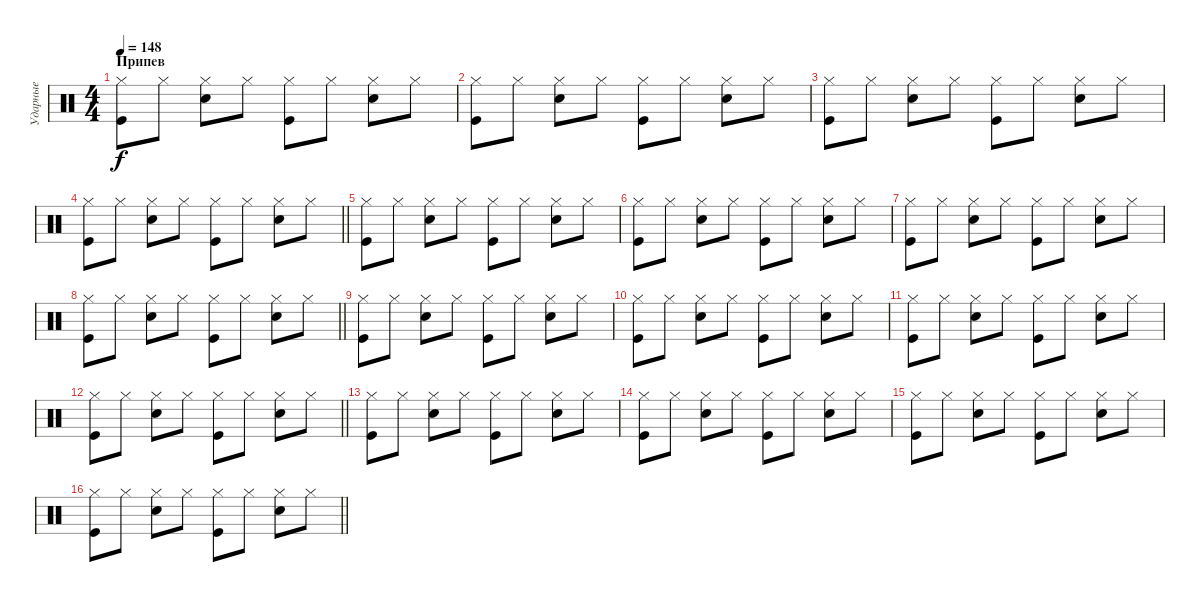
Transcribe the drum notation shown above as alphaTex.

\track ("Ударные" "Ударные") {instrument percussion}
\staff {score}
\articulation defaults
\ts (4 4)
\section ("" "Припев")
\tempo 148
\clef neutral
\ks c
("Hi-Hat (closed)" "Kick (hit)").8{dy f} "Hi-Hat (closed)".8 ("Hi-Hat (closed)" "Snare (hit) 2").8 "Hi-Hat (closed)".8 ("Hi-Hat (closed)" "Kick (hit)").8 "Hi-Hat (closed)".8 ("Hi-Hat (closed)" "Snare (hit) 2").8 "Hi-Hat (closed)".8 |
("Hi-Hat (closed)" "Kick (hit)").8 "Hi-Hat (closed)".8 ("Hi-Hat (closed)" "Snare (hit) 2").8 "Hi-Hat (closed)".8 ("Hi-Hat (closed)" "Kick (hit)").8 "Hi-Hat (closed)".8 ("Hi-Hat (closed)" "Snare (hit) 2").8 "Hi-Hat (closed)".8 |
("Hi-Hat (closed)" "Kick (hit)").8 "Hi-Hat (closed)".8 ("Hi-Hat (closed)" "Snare (hit) 2").8 "Hi-Hat (closed)".8 ("Hi-Hat (closed)" "Kick (hit)").8 "Hi-Hat (closed)".8 ("Hi-Hat (closed)" "Snare (hit) 2").8 "Hi-Hat (closed)".8 |
\barLineRight lightlight
("Hi-Hat (closed)" "Kick (hit)").8 "Hi-Hat (closed)".8 ("Hi-Hat (closed)" "Snare (hit) 2").8 "Hi-Hat (closed)".8 ("Hi-Hat (closed)" "Kick (hit)").8 "Hi-Hat (closed)".8 ("Hi-Hat (closed)" "Snare (hit) 2").8 "Hi-Hat (closed)".8 |
("Hi-Hat (closed)" "Kick (hit)").8 "Hi-Hat (closed)".8 ("Hi-Hat (closed)" "Snare (hit) 2").8 "Hi-Hat (closed)".8 ("Hi-Hat (closed)" "Kick (hit)").8 "Hi-Hat (closed)".8 ("Hi-Hat (closed)" "Snare (hit) 2").8 "Hi-Hat (closed)".8 |
("Hi-Hat (closed)" "Kick (hit)").8 "Hi-Hat (closed)".8 ("Hi-Hat (closed)" "Snare (hit) 2").8 "Hi-Hat (closed)".8 ("Hi-Hat (closed)" "Kick (hit)").8 "Hi-Hat (closed)".8 ("Hi-Hat (closed)" "Snare (hit) 2").8 "Hi-Hat (closed)".8 |
("Hi-Hat (closed)" "Kick (hit)").8 "Hi-Hat (closed)".8 ("Hi-Hat (closed)" "Snare (hit) 2").8 "Hi-Hat (closed)".8 ("Hi-Hat (closed)" "Kick (hit)").8 "Hi-Hat (closed)".8 ("Hi-Hat (closed)" "Snare (hit) 2").8 "Hi-Hat (closed)".8 |
\barLineRight lightlight
("Hi-Hat (closed)" "Kick (hit)").8 "Hi-Hat (closed)".8 ("Hi-Hat (closed)" "Snare (hit) 2").8 "Hi-Hat (closed)".8 ("Hi-Hat (closed)" "Kick (hit)").8 "Hi-Hat (closed)".8 ("Hi-Hat (closed)" "Snare (hit) 2").8 "Hi-Hat (closed)".8 |
("Hi-Hat (closed)" "Kick (hit)").8 "Hi-Hat (closed)".8 ("Hi-Hat (closed)" "Snare (hit) 2").8 "Hi-Hat (closed)".8 ("Hi-Hat (closed)" "Kick (hit)").8 "Hi-Hat (closed)".8 ("Hi-Hat (closed)" "Snare (hit) 2").8 "Hi-Hat (closed)".8 |
("Hi-Hat (closed)" "Kick (hit)").8 "Hi-Hat (closed)".8 ("Hi-Hat (closed)" "Snare (hit) 2").8 "Hi-Hat (closed)".8 ("Hi-Hat (closed)" "Kick (hit)").8 "Hi-Hat (closed)".8 ("Hi-Hat (closed)" "Snare (hit) 2").8 "Hi-Hat (closed)".8 |
("Hi-Hat (closed)" "Kick (hit)").8 "Hi-Hat (closed)".8 ("Hi-Hat (closed)" "Snare (hit) 2").8 "Hi-Hat (closed)".8 ("Hi-Hat (closed)" "Kick (hit)").8 "Hi-Hat (closed)".8 ("Hi-Hat (closed)" "Snare (hit) 2").8 "Hi-Hat (closed)".8 |
\barLineRight lightlight
("Hi-Hat (closed)" "Kick (hit)").8 "Hi-Hat (closed)".8 ("Hi-Hat (closed)" "Snare (hit) 2").8 "Hi-Hat (closed)".8 ("Hi-Hat (closed)" "Kick (hit)").8 "Hi-Hat (closed)".8 ("Hi-Hat (closed)" "Snare (hit) 2").8 "Hi-Hat (closed)".8 |
("Hi-Hat (closed)" "Kick (hit)").8 "Hi-Hat (closed)".8 ("Hi-Hat (closed)" "Snare (hit) 2").8 "Hi-Hat (closed)".8 ("Hi-Hat (closed)" "Kick (hit)").8 "Hi-Hat (closed)".8 ("Hi-Hat (closed)" "Snare (hit) 2").8 "Hi-Hat (closed)".8 |
("Hi-Hat (closed)" "Kick (hit)").8 "Hi-Hat (closed)".8 ("Hi-Hat (closed)" "Snare (hit) 2").8 "Hi-Hat (closed)".8 ("Hi-Hat (closed)" "Kick (hit)").8 "Hi-Hat (closed)".8 ("Hi-Hat (closed)" "Snare (hit) 2").8 "Hi-Hat (closed)".8 |
("Hi-Hat (closed)" "Kick (hit)").8 "Hi-Hat (closed)".8 ("Hi-Hat (closed)" "Snare (hit) 2").8 "Hi-Hat (closed)".8 ("Hi-Hat (closed)" "Kick (hit)").8 "Hi-Hat (closed)".8 ("Hi-Hat (closed)" "Snare (hit) 2").8 "Hi-Hat (closed)".8 |
\barLineRight lightlight
("Hi-Hat (closed)" "Kick (hit)").8 "Hi-Hat (closed)".8 ("Hi-Hat (closed)" "Snare (hit) 2").8 "Hi-Hat (closed)".8 ("Hi-Hat (closed)" "Kick (hit)").8 "Hi-Hat (closed)".8 ("Hi-Hat (closed)" "Snare (hit) 2").8 "Hi-Hat (closed)".8
